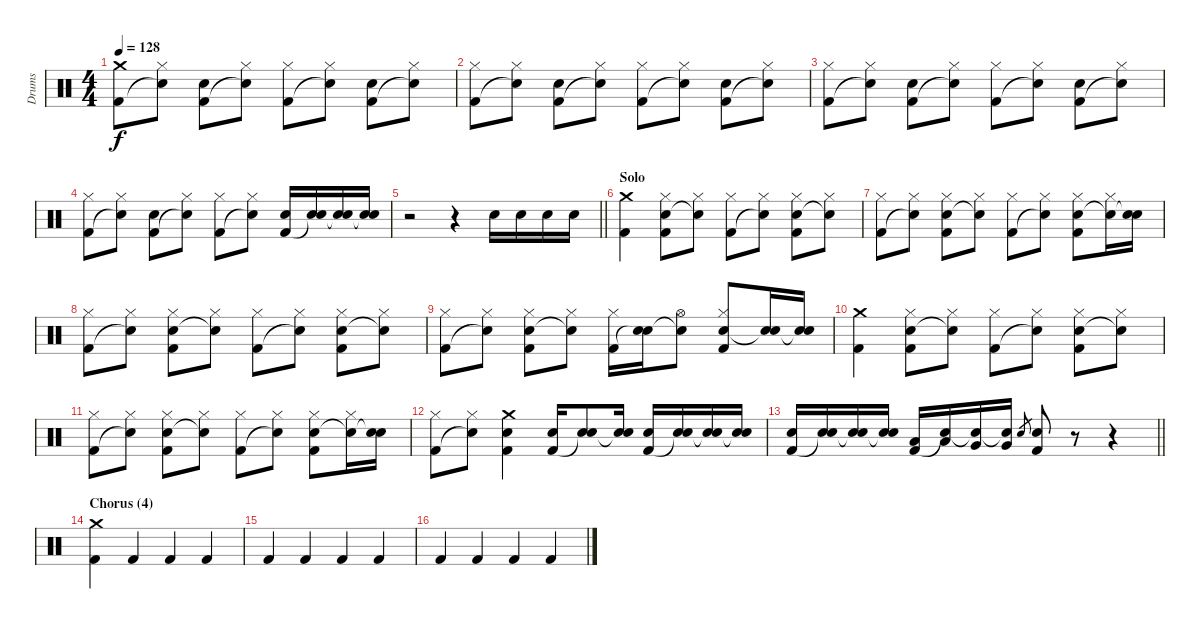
\track ("Drums" "Drums") {instrument percussion}
\staff {score}
\articulation defaults
\ts (4 4)
\tempo 128
\clef neutral
\ks aminor
("Crash medium (hit)" "Kick (hit) 2").8{dy f} ("Hi-Hat (closed)" "Snare (hit)"{t}).8 ("Electric Snare (hit)" "Kick (hit) 2").8 ("Hi-Hat (closed)" "Snare (hit)"{t}).8 ("Hi-Hat (closed)" "Kick (hit) 2").8 ("Hi-Hat (closed)" "Snare (hit)"{t}).8 ("Electric Snare (hit)" "Kick (hit) 2").8 ("Hi-Hat (closed)" "Snare (hit)"{t}).8 |
("Hi-Hat (closed)" "Kick (hit) 2").8 ("Hi-Hat (closed)" "Snare (hit)"{t}).8 ("Electric Snare (hit)" "Kick (hit) 2").8 ("Hi-Hat (closed)" "Snare (hit)"{t}).8 ("Hi-Hat (closed)" "Kick (hit) 2").8 ("Hi-Hat (closed)" "Snare (hit)"{t}).8 ("Electric Snare (hit)" "Kick (hit) 2").8 ("Hi-Hat (closed)" "Snare (hit)"{t}).8 |
("Hi-Hat (closed)" "Kick (hit) 2").8 ("Hi-Hat (closed)" "Snare (hit)"{t}).8 ("Electric Snare (hit)" "Kick (hit) 2").8 ("Hi-Hat (closed)" "Snare (hit)"{t}).8 ("Hi-Hat (closed)" "Kick (hit) 2").8 ("Hi-Hat (closed)" "Snare (hit)"{t}).8 ("Electric Snare (hit)" "Kick (hit) 2").8 ("Hi-Hat (closed)" "Snare (hit)"{t}).8 |
("Hi-Hat (closed)" "Kick (hit) 2").8 ("Hi-Hat (closed)" "Snare (hit)"{t}).8 ("Electric Snare (hit)" "Kick (hit) 2").8 ("Hi-Hat (closed)" "Snare (hit)"{t}).8 ("Hi-Hat (closed)" "Kick (hit) 2").8 ("Hi-Hat (closed)" "Snare (hit)"{t}).8 ("Electric Snare (hit)" "Kick (hit) 2").16 ("Electric Snare (hit)" "Snare (hit)"{t}).16 ("Electric Snare (hit)" "Snare (hit)"{t}).16 ("Electric Snare (hit)" "Snare (hit)"{t}).16 |
\barLineRight lightlight
r.2 r.4 "Electric Snare (hit)".16 "Electric Snare (hit)".16 "Electric Snare (hit)".16 "Electric Snare (hit)".16 |
\section ("" "Solo")
("Crash medium (hit)" "Kick (hit) 2").4 ("Hi-Hat (closed)" "Electric Snare (hit)" "Kick (hit) 2").8 ("Hi-Hat (closed)" "Snare (hit)"{t}).8 ("Hi-Hat (closed)" "Kick (hit) 2").8 ("Hi-Hat (closed)" "Snare (hit)"{t}).8 ("Hi-Hat (closed)" "Electric Snare (hit)" "Kick (hit) 2").8 ("Hi-Hat (closed)" "Snare (hit)"{t}).8 |
("Hi-Hat (closed)" "Kick (hit) 2").8 ("Hi-Hat (closed)" "Snare (hit)"{t}).8 ("Hi-Hat (closed)" "Electric Snare (hit)" "Kick (hit) 2").8 ("Hi-Hat (closed)" "Snare (hit)"{t}).8 ("Hi-Hat (closed)" "Kick (hit) 2").8 ("Hi-Hat (closed)" "Snare (hit)"{t}).8 ("Hi-Hat (closed)" "Electric Snare (hit)" "Kick (hit) 2").8 ("Hi-Hat (closed)" "Snare (hit)"{t}).16 ("Electric Snare (hit)" "Snare (hit)"{t}).16 |
("Hi-Hat (closed)" "Kick (hit) 2").8 ("Hi-Hat (closed)" "Snare (hit)"{t}).8 ("Hi-Hat (closed)" "Electric Snare (hit)" "Kick (hit) 2").8 ("Hi-Hat (closed)" "Snare (hit)"{t}).8 ("Hi-Hat (closed)" "Kick (hit) 2").8 ("Hi-Hat (closed)" "Snare (hit)"{t}).8 ("Hi-Hat (closed)" "Electric Snare (hit)" "Kick (hit) 2").8 ("Hi-Hat (closed)" "Snare (hit)"{t}).8 |
("Hi-Hat (closed)" "Kick (hit) 2").8 ("Hi-Hat (closed)" "Snare (hit)"{t}).8 ("Hi-Hat (closed)" "Electric Snare (hit)" "Kick (hit) 2").8 ("Hi-Hat (closed)" "Snare (hit)"{t}).8 ("Hi-Hat (closed)" "Kick (hit) 2").16 ("Electric Snare (hit)" "Snare (hit)"{t}).16 ("Hi-Hat (open)" "Snare (hit)"{t}).8 ("Hi-Hat (closed)" "Electric Snare (hit)" "Kick (hit) 2").8 ("Electric Snare (hit)" "Snare (hit)"{t}).16 ("Electric Snare (hit)" "Snare (hit)"{t}).16 |
("Crash medium (hit)" "Kick (hit) 2").4 ("Hi-Hat (closed)" "Electric Snare (hit)" "Kick (hit) 2").8 ("Hi-Hat (closed)" "Snare (hit)"{t}).8 ("Hi-Hat (closed)" "Kick (hit) 2").8 ("Hi-Hat (closed)" "Snare (hit)"{t}).8 ("Hi-Hat (closed)" "Electric Snare (hit)" "Kick (hit) 2").8 ("Hi-Hat (closed)" "Snare (hit)"{t}).8 |
("Hi-Hat (closed)" "Kick (hit) 2").8 ("Hi-Hat (closed)" "Snare (hit)"{t}).8 ("Hi-Hat (closed)" "Electric Snare (hit)" "Kick (hit) 2").8 ("Hi-Hat (closed)" "Snare (hit)"{t}).8 ("Hi-Hat (closed)" "Kick (hit) 2").8 ("Hi-Hat (closed)" "Snare (hit)"{t}).8 ("Hi-Hat (closed)" "Electric Snare (hit)" "Kick (hit) 2").8 ("Hi-Hat (closed)" "Snare (hit)"{t}).16 ("Electric Snare (hit)" "Snare (hit)"{t}).16 |
("Hi-Hat (closed)" "Kick (hit) 2").8 ("Hi-Hat (closed)" "Snare (hit)"{t}).8 ("Crash medium (hit)" "Electric Snare (hit)" "Kick (hit) 2").4 ("Electric Snare (hit)" "Kick (hit) 2").16 ("Electric Snare (hit)" "Snare (hit)"{t}).8 ("Electric Snare (hit)" "Snare (hit)"{t}).16 ("Electric Snare (hit)" "Kick (hit) 2").16 ("Electric Snare (hit)" "Snare (hit)"{t}).16 ("Electric Snare (hit)" "Snare (hit)"{t}).16 ("Electric Snare (hit)" "Snare (hit)"{t}).16 |
\barLineRight lightlight
("Electric Snare (hit)" "Kick (hit) 2").16 ("Electric Snare (hit)" "Snare (hit)"{t}).16 ("Electric Snare (hit)" "Snare (hit)"{t}).16 ("Electric Snare (hit)" "Snare (hit)"{t}).16 ("Low Tom (hit)" "Kick (hit) 2").16 ("Low Tom (hit)" "Snare (hit)"{t}).16 ("Very Low Tom (hit)" "Snare (hit)"{t}).16 ("Very Low Tom (hit)" "Snare (hit)"{t}).16 "Electric Snare (hit)".8{gr} ("Electric Snare (hit)" "Kick (hit) 2").8 r.8 r.4 |
\section ("" "Chorus (4)")
("Crash medium (hit)" "Kick (hit) 2").4 "Kick (hit) 2".4 "Kick (hit) 2".4 "Kick (hit) 2".4 |
"Kick (hit) 2".4 "Kick (hit) 2".4 "Kick (hit) 2".4 "Kick (hit) 2".4 |
"Kick (hit) 2".4 "Kick (hit) 2".4 "Kick (hit) 2".4 "Kick (hit) 2".4
